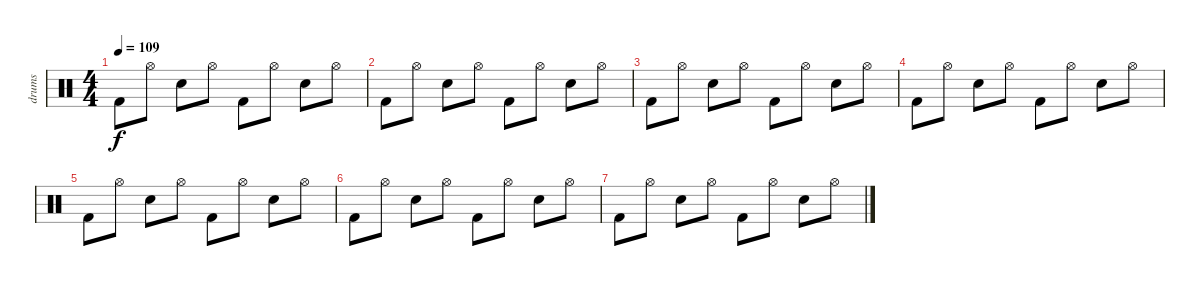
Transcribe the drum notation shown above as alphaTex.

\track ("drums" "drums") {instrument percussion}
\staff {score}
\articulation defaults
\ts (4 4)
\tempo 109
\clef neutral
\ks c "Kick (hit) 2".8{dy f} "Hi-Hat (open)".8 "Snare (hit) 2".8 "Hi-Hat (open)".8 "Kick (hit) 2".8 "Hi-Hat (open)".8 "Snare (hit) 2".8 "Hi-Hat (open)".8
|
"Kick (hit) 2".8 "Hi-Hat (open)".8 "Snare (hit) 2".8 "Hi-Hat (open)".8 "Kick (hit) 2".8 "Hi-Hat (open)".8 "Snare (hit) 2".8 "Hi-Hat (open)".8 |
"Kick (hit) 2".8 "Hi-Hat (open)".8 "Snare (hit) 2".8 "Hi-Hat (open)".8 "Kick (hit) 2".8 "Hi-Hat (open)".8 "Snare (hit) 2".8 "Hi-Hat (open)".8 |
"Kick (hit) 2".8 "Hi-Hat (open)".8 "Snare (hit) 2".8 "Hi-Hat (open)".8 "Kick (hit) 2".8 "Hi-Hat (open)".8 "Snare (hit) 2".8 "Hi-Hat (open)".8 |
"Kick (hit) 2".8 "Hi-Hat (open)".8 "Snare (hit) 2".8 "Hi-Hat (open)".8 "Kick (hit) 2".8 "Hi-Hat (open)".8 "Snare (hit) 2".8 "Hi-Hat (open)".8 |
"Kick (hit) 2".8 "Hi-Hat (open)".8 "Snare (hit) 2".8 "Hi-Hat (open)".8 "Kick (hit) 2".8 "Hi-Hat (open)".8 "Snare (hit) 2".8 "Hi-Hat (open)".8 |
"Kick (hit) 2".8 "Hi-Hat (open)".8 "Snare (hit) 2".8 "Hi-Hat (open)".8 "Kick (hit) 2".8 "Hi-Hat (open)".8 "Snare (hit) 2".8 "Hi-Hat (open)".8
